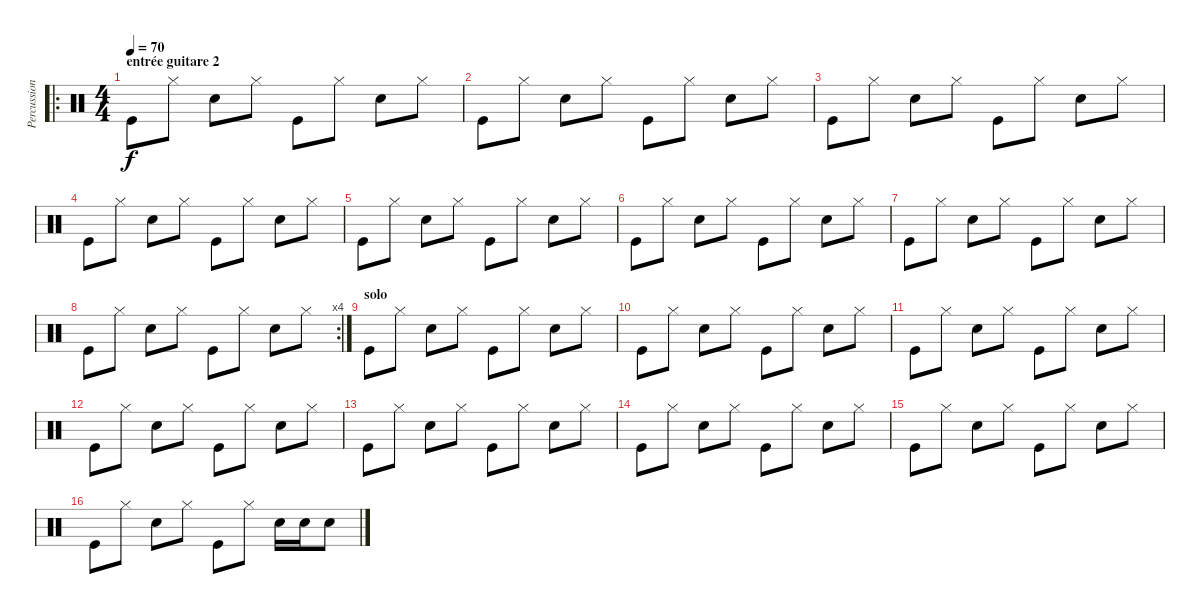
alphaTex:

\track ("Percussions" "Percussion") {instrument percussion}
\staff {score}
\articulation defaults
\ro
\ts (4 4)
\section ("" "entrée guitare 2")
\tempo 70
\clef neutral
\ks c "Kick (hit)".8{dy f} "Hi-Hat (closed)".8 "Electric Snare (hit)".8 "Hi-Hat (closed)".8 "Kick (hit)".8 "Hi-Hat (closed)".8 "Electric Snare (hit)".8 "Hi-Hat (closed)".8
|
"Kick (hit)".8 "Hi-Hat (closed)".8 "Electric Snare (hit)".8 "Hi-Hat (closed)".8 "Kick (hit)".8 "Hi-Hat (closed)".8 "Electric Snare (hit)".8 "Hi-Hat (closed)".8 |
"Kick (hit)".8 "Hi-Hat (closed)".8 "Electric Snare (hit)".8 "Hi-Hat (closed)".8 "Kick (hit)".8 "Hi-Hat (closed)".8 "Electric Snare (hit)".8 "Hi-Hat (closed)".8 |
"Kick (hit)".8 "Hi-Hat (closed)".8 "Electric Snare (hit)".8 "Hi-Hat (closed)".8 "Kick (hit)".8 "Hi-Hat (closed)".8 "Electric Snare (hit)".8 "Hi-Hat (closed)".8 |
"Kick (hit)".8 "Hi-Hat (closed)".8 "Electric Snare (hit)".8 "Hi-Hat (closed)".8 "Kick (hit)".8 "Hi-Hat (closed)".8 "Electric Snare (hit)".8 "Hi-Hat (closed)".8 |
"Kick (hit)".8 "Hi-Hat (closed)".8 "Electric Snare (hit)".8 "Hi-Hat (closed)".8 "Kick (hit)".8 "Hi-Hat (closed)".8 "Electric Snare (hit)".8 "Hi-Hat (closed)".8 |
"Kick (hit)".8 "Hi-Hat (closed)".8 "Electric Snare (hit)".8 "Hi-Hat (closed)".8 "Kick (hit)".8 "Hi-Hat (closed)".8 "Electric Snare (hit)".8 "Hi-Hat (closed)".8 |
\rc 4 "Kick (hit)".8 "Hi-Hat (closed)".8 "Electric Snare (hit)".8 "Hi-Hat (closed)".8 "Kick (hit)".8 "Hi-Hat (closed)".8 "Electric Snare (hit)".8 "Hi-Hat (closed)".8
|
\section ("" "solo")
"Kick (hit)".8 "Hi-Hat (closed)".8 "Electric Snare (hit)".8 "Hi-Hat (closed)".8 "Kick (hit)".8 "Hi-Hat (closed)".8 "Electric Snare (hit)".8 "Hi-Hat (closed)".8 |
"Kick (hit)".8 "Hi-Hat (closed)".8 "Electric Snare (hit)".8 "Hi-Hat (closed)".8 "Kick (hit)".8 "Hi-Hat (closed)".8 "Electric Snare (hit)".8 "Hi-Hat (closed)".8 |
"Kick (hit)".8 "Hi-Hat (closed)".8 "Electric Snare (hit)".8 "Hi-Hat (closed)".8 "Kick (hit)".8 "Hi-Hat (closed)".8 "Electric Snare (hit)".8 "Hi-Hat (closed)".8 |
"Kick (hit)".8 "Hi-Hat (closed)".8 "Electric Snare (hit)".8 "Hi-Hat (closed)".8 "Kick (hit)".8 "Hi-Hat (closed)".8 "Electric Snare (hit)".8 "Hi-Hat (closed)".8 |
"Kick (hit)".8 "Hi-Hat (closed)".8 "Electric Snare (hit)".8 "Hi-Hat (closed)".8 "Kick (hit)".8 "Hi-Hat (closed)".8 "Electric Snare (hit)".8 "Hi-Hat (closed)".8 |
"Kick (hit)".8 "Hi-Hat (closed)".8 "Electric Snare (hit)".8 "Hi-Hat (closed)".8 "Kick (hit)".8 "Hi-Hat (closed)".8 "Electric Snare (hit)".8 "Hi-Hat (closed)".8 |
"Kick (hit)".8 "Hi-Hat (closed)".8 "Electric Snare (hit)".8 "Hi-Hat (closed)".8 "Kick (hit)".8 "Hi-Hat (closed)".8 "Electric Snare (hit)".8 "Hi-Hat (closed)".8 |
"Kick (hit)".8 "Hi-Hat (closed)".8 "Electric Snare (hit)".8 "Hi-Hat (closed)".8 "Kick (hit)".8 "Hi-Hat (closed)".8 "Electric Snare (hit)".16 "Electric Snare (hit)".16 "Electric Snare (hit)".8
